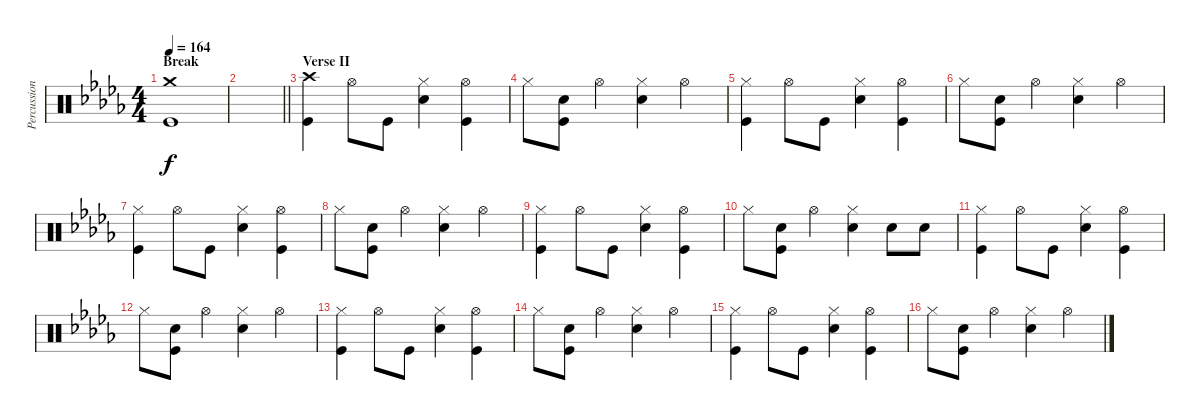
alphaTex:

\track ("Percussion" "Percussion") {instrument percussion}
\staff {score}
\articulation defaults
\ts (4 4)
\section ("" "Break")
\tempo 164
\clef neutral
\ks db
("Crash medium (hit)" "Kick (hit)").1{dy f} |
\barLineRight lightlight
|
\section ("" "Verse II")
("Crash high (hit)" "Kick (hit)").4 "Hi-Hat (open)".8 "Kick (hit)".8 ("Hi-Hat (closed)" "Electric Snare (hit)").4 ("Hi-Hat (open)" "Kick (hit)").4 |
"Hi-Hat (closed)".8 ("Electric Snare (hit)" "Kick (hit)").8 "Hi-Hat (open)".4 ("Hi-Hat (closed)" "Electric Snare (hit)").4 "Hi-Hat (open)".4 |
("Hi-Hat (closed)" "Kick (hit)").4 "Hi-Hat (open)".8 "Kick (hit)".8 ("Hi-Hat (closed)" "Electric Snare (hit)").4 ("Hi-Hat (open)" "Kick (hit)").4 |
"Hi-Hat (closed)".8 ("Electric Snare (hit)" "Kick (hit)").8 "Hi-Hat (open)".4 ("Hi-Hat (closed)" "Electric Snare (hit)").4 "Hi-Hat (open)".4 |
("Hi-Hat (closed)" "Kick (hit)").4 "Hi-Hat (open)".8 "Kick (hit)".8 ("Hi-Hat (closed)" "Electric Snare (hit)").4 ("Hi-Hat (open)" "Kick (hit)").4 |
"Hi-Hat (closed)".8 ("Electric Snare (hit)" "Kick (hit)").8 "Hi-Hat (open)".4 ("Hi-Hat (closed)" "Electric Snare (hit)").4 "Hi-Hat (open)".4 |
("Hi-Hat (closed)" "Kick (hit)").4 "Hi-Hat (open)".8 "Kick (hit)".8 ("Hi-Hat (closed)" "Electric Snare (hit)").4 ("Hi-Hat (open)" "Kick (hit)").4 |
"Hi-Hat (closed)".8 ("Electric Snare (hit)" "Kick (hit)").8 "Hi-Hat (open)".4 ("Hi-Hat (closed)" "Electric Snare (hit)").4 "Electric Snare (hit)".8 "Electric Snare (hit)".8 |
("Hi-Hat (closed)" "Kick (hit)").4 "Hi-Hat (open)".8 "Kick (hit)".8 ("Hi-Hat (closed)" "Electric Snare (hit)").4 ("Hi-Hat (open)" "Kick (hit)").4 |
"Hi-Hat (closed)".8 ("Electric Snare (hit)" "Kick (hit)").8 "Hi-Hat (open)".4 ("Hi-Hat (closed)" "Electric Snare (hit)").4 "Hi-Hat (open)".4 |
("Hi-Hat (closed)" "Kick (hit)").4 "Hi-Hat (open)".8 "Kick (hit)".8 ("Hi-Hat (closed)" "Electric Snare (hit)").4 ("Hi-Hat (open)" "Kick (hit)").4 |
"Hi-Hat (closed)".8 ("Electric Snare (hit)" "Kick (hit)").8 "Hi-Hat (open)".4 ("Hi-Hat (closed)" "Electric Snare (hit)").4 "Hi-Hat (open)".4 |
("Hi-Hat (closed)" "Kick (hit)").4 "Hi-Hat (open)".8 "Kick (hit)".8 ("Hi-Hat (closed)" "Electric Snare (hit)").4 ("Hi-Hat (open)" "Kick (hit)").4 |
"Hi-Hat (closed)".8 ("Electric Snare (hit)" "Kick (hit)").8 "Hi-Hat (open)".4 ("Hi-Hat (closed)" "Electric Snare (hit)").4 "Hi-Hat (open)".4
